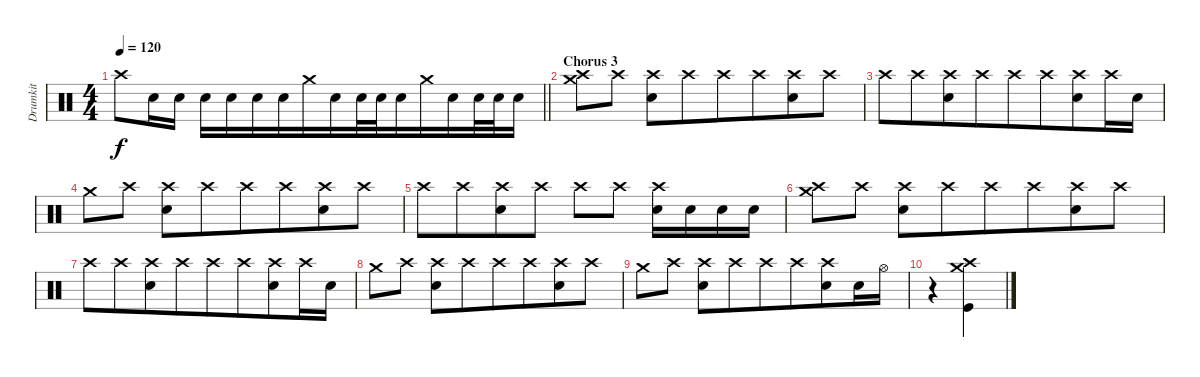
\track ("Drumkit" "Drumkit") {instrument percussion bank 2}
\staff {score}
\articulation defaults
\ts (4 4)
\tempo 120
\clef neutral
\barLineRight lightlight
\ks c "Crash high (hit)".8{dy f beam merge} "Electric Snare (hit)".16{beam merge} "Electric Snare (hit)".16 "Electric Snare (hit)".16{beam merge} "Electric Snare (hit)".16{beam merge} "Electric Snare (hit)".16 "Electric Snare (hit)".16{beam merge} "Crash medium (hit)".16 "Electric Snare (hit)".16 "Electric Snare (hit)".32 "Electric Snare (hit)".32 "Electric Snare (hit)".16{beam merge} "Crash medium (hit)".16{beam merge} "Electric Snare (hit)".16{beam merge} "Electric Snare (hit)".32{beam merge} "Electric Snare (hit)".32 "Electric Snare (hit)".16
|
\section ("" "Chorus 3")
("Crash medium (hit)" "Crash high (hit)").8{beam merge} "Crash high (hit)".8 ("Crash high (hit)" "Electric Snare (hit)").8{beam merge} "Crash high (hit)".8{beam merge} "Crash high (hit)".8 "Crash high (hit)".8{beam merge} ("Crash high (hit)" "Electric Snare (hit)").8{beam merge} "Crash high (hit)".8 |
"Crash high (hit)".8 "Crash high (hit)".8{beam merge} ("Crash high (hit)" "Electric Snare (hit)").8 "Crash high (hit)".8{beam merge} "Crash high (hit)".8{beam merge} "Crash high (hit)".8{beam merge} ("Crash high (hit)" "Electric Snare (hit)").8 "Crash high (hit)".16{beam merge} "Electric Snare (hit)".16 |
"Crash medium (hit)".8 "Crash high (hit)".8 ("Crash high (hit)" "Electric Snare (hit)").8 "Crash high (hit)".8{beam merge} "Crash high (hit)".8 "Crash high (hit)".8{beam merge} ("Crash high (hit)" "Electric Snare (hit)").8 "Crash high (hit)".8 |
"Crash high (hit)".8 "Crash high (hit)".8{beam merge} ("Crash high (hit)" "Electric Snare (hit)").8{beam merge} "Crash high (hit)".8 "Crash high (hit)".8{beam merge} "Crash high (hit)".8 ("Crash high (hit)" "Electric Snare (hit)").16{beam merge} "Electric Snare (hit)".16{beam merge} "Electric Snare (hit)".16{beam merge} "Electric Snare (hit)".16 |
("Crash medium (hit)" "Crash high (hit)").8{beam merge} "Crash high (hit)".8 ("Crash high (hit)" "Electric Snare (hit)").8{beam merge} "Crash high (hit)".8{beam merge} "Crash high (hit)".8 "Crash high (hit)".8{beam merge} ("Crash high (hit)" "Electric Snare (hit)").8{beam merge} "Crash high (hit)".8 |
"Crash high (hit)".8 "Crash high (hit)".8{beam merge} ("Crash high (hit)" "Electric Snare (hit)").8 "Crash high (hit)".8{beam merge} "Crash high (hit)".8{beam merge} "Crash high (hit)".8{beam merge} ("Crash high (hit)" "Electric Snare (hit)").8 "Crash high (hit)".16 "Electric Snare (hit)".16 |
"Crash medium (hit)".8 "Crash high (hit)".8 ("Crash high (hit)" "Electric Snare (hit)").8 "Crash high (hit)".8{beam merge} "Crash high (hit)".8 "Crash high (hit)".8{beam merge} ("Crash high (hit)" "Electric Snare (hit)").8 "Crash high (hit)".8 |
"Crash medium (hit)".8 "Crash high (hit)".8 ("Crash high (hit)" "Electric Snare (hit)").8 "Crash high (hit)".8{beam merge} "Crash high (hit)".8 "Crash high (hit)".8{beam merge} ("Crash high (hit)" "Electric Snare (hit)").8{beam merge} "Electric Snare (hit)".16{beam merge} "Hi-Hat (open)".16 |
r.4 ("Crash medium (hit)" "Crash high (hit)" "Kick (hit)").4
